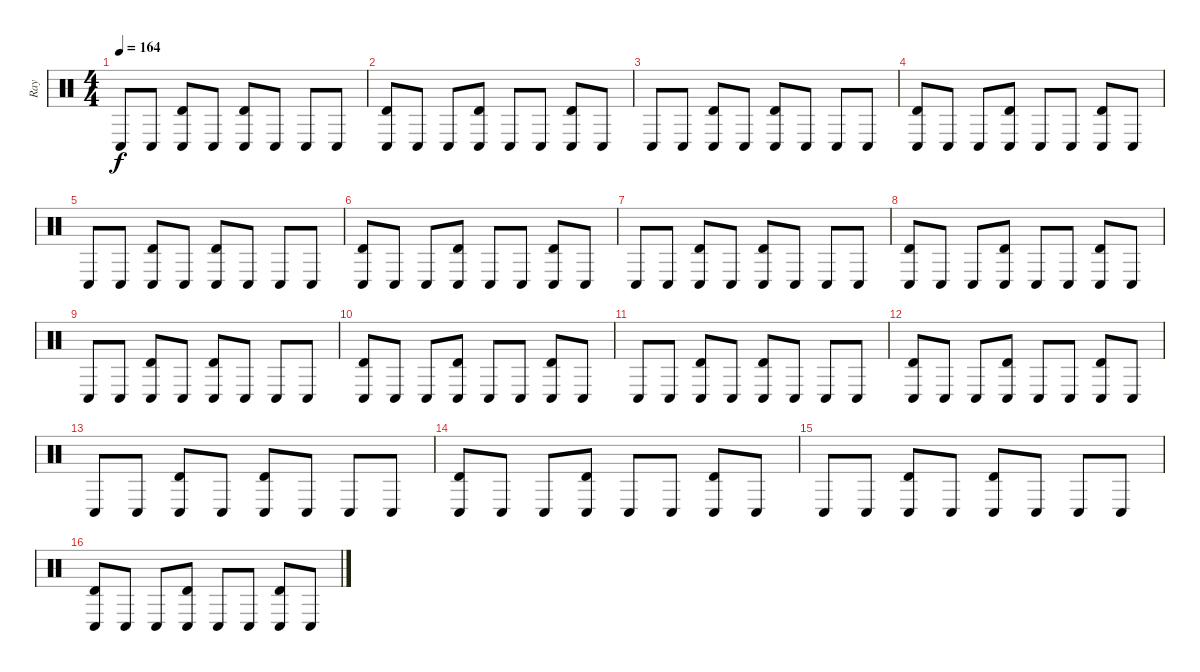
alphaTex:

\track ("Ray" "Ray") {instrument percussion}
\staff {score}
\articulation defaults
\ts (4 4)
\tempo 164
\clef neutral
\ks c "Conga low (hit)".8{dy f} "Conga low (hit)".8
("Timbale high (hit)" "Conga low (hit)").8 "Conga low (hit)".8 ("Timbale high (hit)" "Conga low (hit)").8 "Conga low (hit)".8 "Conga low (hit)".8 "Conga low (hit)".8 |
("Timbale high (hit)" "Conga low (hit)").8 "Conga low (hit)".8 "Conga low (hit)".8 ("Timbale high (hit)" "Conga low (hit)").8 "Conga low (hit)".8 "Conga low (hit)".8 ("Timbale high (hit)" "Conga low (hit)").8 "Conga low (hit)".8 |
"Conga low (hit)".8 "Conga low (hit)".8 ("Timbale high (hit)" "Conga low (hit)").8 "Conga low (hit)".8 ("Timbale high (hit)" "Conga low (hit)").8 "Conga low (hit)".8 "Conga low (hit)".8 "Conga low (hit)".8 |
("Timbale high (hit)" "Conga low (hit)").8 "Conga low (hit)".8 "Conga low (hit)".8 ("Timbale high (hit)" "Conga low (hit)").8 "Conga low (hit)".8 "Conga low (hit)".8 ("Timbale high (hit)" "Conga low (hit)").8 "Conga low (hit)".8 |
"Conga low (hit)".8 "Conga low (hit)".8 ("Timbale high (hit)" "Conga low (hit)").8 "Conga low (hit)".8 ("Timbale high (hit)" "Conga low (hit)").8 "Conga low (hit)".8 "Conga low (hit)".8 "Conga low (hit)".8 |
("Timbale high (hit)" "Conga low (hit)").8 "Conga low (hit)".8 "Conga low (hit)".8 ("Timbale high (hit)" "Conga low (hit)").8 "Conga low (hit)".8 "Conga low (hit)".8 ("Timbale high (hit)" "Conga low (hit)").8 "Conga low (hit)".8 |
"Conga low (hit)".8 "Conga low (hit)".8 ("Timbale high (hit)" "Conga low (hit)").8 "Conga low (hit)".8 ("Timbale high (hit)" "Conga low (hit)").8 "Conga low (hit)".8 "Conga low (hit)".8 "Conga low (hit)".8 |
("Timbale high (hit)" "Conga low (hit)").8 "Conga low (hit)".8 "Conga low (hit)".8 ("Timbale high (hit)" "Conga low (hit)").8 "Conga low (hit)".8 "Conga low (hit)".8 ("Timbale high (hit)" "Conga low (hit)").8 "Conga low (hit)".8 |
"Conga low (hit)".8 "Conga low (hit)".8 ("Timbale high (hit)" "Conga low (hit)").8 "Conga low (hit)".8 ("Timbale high (hit)" "Conga low (hit)").8 "Conga low (hit)".8 "Conga low (hit)".8 "Conga low (hit)".8 |
("Timbale high (hit)" "Conga low (hit)").8 "Conga low (hit)".8 "Conga low (hit)".8 ("Timbale high (hit)" "Conga low (hit)").8 "Conga low (hit)".8 "Conga low (hit)".8 ("Timbale high (hit)" "Conga low (hit)").8 "Conga low (hit)".8 |
"Conga low (hit)".8 "Conga low (hit)".8 ("Timbale high (hit)" "Conga low (hit)").8 "Conga low (hit)".8 ("Timbale high (hit)" "Conga low (hit)").8 "Conga low (hit)".8 "Conga low (hit)".8 "Conga low (hit)".8 |
("Timbale high (hit)" "Conga low (hit)").8 "Conga low (hit)".8 "Conga low (hit)".8 ("Timbale high (hit)" "Conga low (hit)").8 "Conga low (hit)".8 "Conga low (hit)".8 ("Timbale high (hit)" "Conga low (hit)").8 "Conga low (hit)".8 |
"Conga low (hit)".8 "Conga low (hit)".8 ("Timbale high (hit)" "Conga low (hit)").8 "Conga low (hit)".8 ("Timbale high (hit)" "Conga low (hit)").8 "Conga low (hit)".8 "Conga low (hit)".8 "Conga low (hit)".8 |
("Timbale high (hit)" "Conga low (hit)").8 "Conga low (hit)".8 "Conga low (hit)".8 ("Timbale high (hit)" "Conga low (hit)").8 "Conga low (hit)".8 "Conga low (hit)".8 ("Timbale high (hit)" "Conga low (hit)").8 "Conga low (hit)".8 |
"Conga low (hit)".8 "Conga low (hit)".8 ("Timbale high (hit)" "Conga low (hit)").8 "Conga low (hit)".8 ("Timbale high (hit)" "Conga low (hit)").8 "Conga low (hit)".8 "Conga low (hit)".8 "Conga low (hit)".8 |
("Timbale high (hit)" "Conga low (hit)").8 "Conga low (hit)".8 "Conga low (hit)".8 ("Timbale high (hit)" "Conga low (hit)").8 "Conga low (hit)".8 "Conga low (hit)".8 ("Timbale high (hit)" "Conga low (hit)").8 "Conga low (hit)".8
